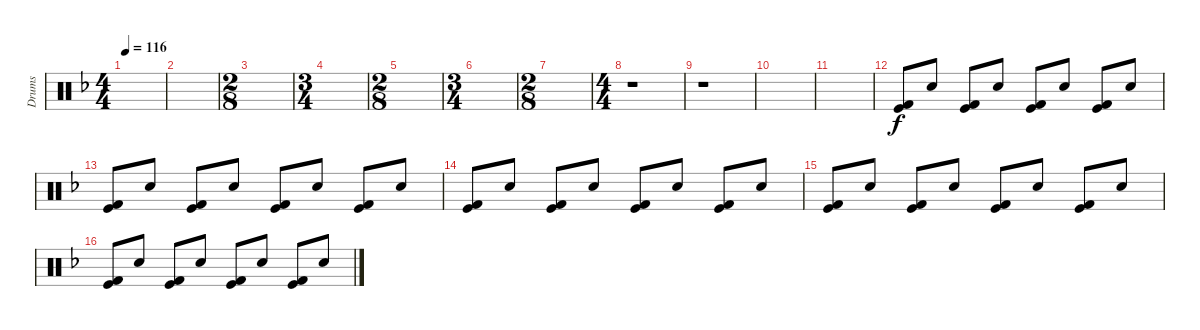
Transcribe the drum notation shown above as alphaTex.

\track ("Drums" "Drums") {instrument percussion}
\staff {score}
\articulation defaults
\ts (4 4)
\tempo 116
\clef neutral
\ks f
|
|
\ts (2 8)
|
\ts (3 4)
|
\ts (2 8)
|
\ts (3 4)
|
\ts (2 8)
|
\ts (4 4)
r.1 |
r.1 |
|
|
("Kick (hit)" "Kick (hit) 2").8 "Snare (hit) 2".8 ("Kick (hit)" "Kick (hit) 2").8 "Snare (hit) 2".8 ("Kick (hit)" "Kick (hit) 2").8 "Snare (hit) 2".8 ("Kick (hit)" "Kick (hit) 2").8 "Snare (hit) 2".8 |
("Kick (hit)" "Kick (hit) 2").8 "Snare (hit) 2".8 ("Kick (hit)" "Kick (hit) 2").8 "Snare (hit) 2".8 ("Kick (hit)" "Kick (hit) 2").8 "Snare (hit) 2".8 ("Kick (hit)" "Kick (hit) 2").8 "Snare (hit) 2".8 |
("Kick (hit)" "Kick (hit) 2").8 "Snare (hit) 2".8 ("Kick (hit)" "Kick (hit) 2").8 "Snare (hit) 2".8 ("Kick (hit)" "Kick (hit) 2").8 "Snare (hit) 2".8 ("Kick (hit)" "Kick (hit) 2").8 "Snare (hit) 2".8 |
("Kick (hit)" "Kick (hit) 2").8 "Snare (hit) 2".8 ("Kick (hit)" "Kick (hit) 2").8 "Snare (hit) 2".8 ("Kick (hit)" "Kick (hit) 2").8 "Snare (hit) 2".8 ("Kick (hit)" "Kick (hit) 2").8 "Snare (hit) 2".8 |
("Kick (hit)" "Kick (hit) 2").8 "Snare (hit) 2".8 ("Kick (hit)" "Kick (hit) 2").8 "Snare (hit) 2".8 ("Kick (hit)" "Kick (hit) 2").8 "Snare (hit) 2".8 ("Kick (hit)" "Kick (hit) 2").8 "Snare (hit) 2".8
